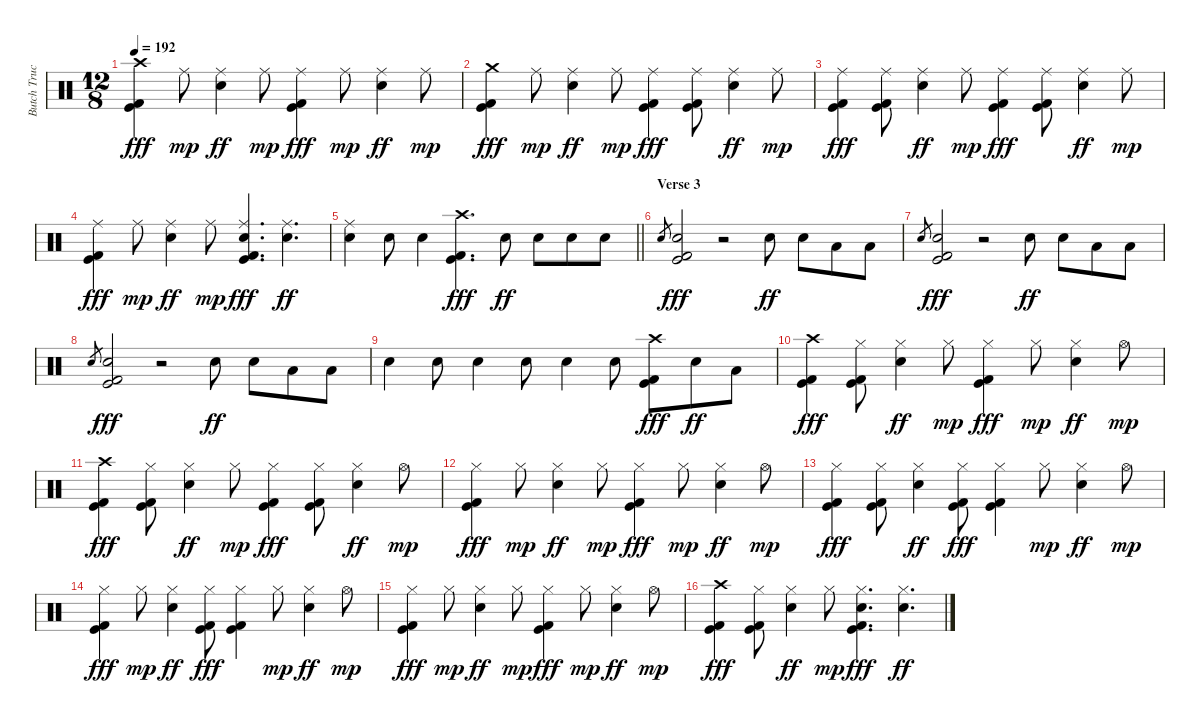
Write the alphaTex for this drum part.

\track ("Butch Trucks, Jaimoe - Drums" "Butch Truc") {instrument percussion}
\staff {score}
\articulation defaults
\ts (12 8)
\tempo 192
\clef neutral
\ks c
("Crash high (hit)" "Kick (hit)" "Kick (hit) 2").4{dy fff} "Ride (middle)".8{dy mp} ("Ride (middle)" "Snare (hit) 2").4{dy ff} "Ride (middle)".8{dy mp} ("Ride (middle)" "Kick (hit)" "Kick (hit) 2").4{dy fff} "Ride (middle)".8{dy mp} ("Ride (middle)" "Snare (hit) 2").4{dy ff} "Ride (middle)".8{dy mp} |
("Crash medium (hit)" "Kick (hit)" "Kick (hit) 2").4{dy fff} "Ride (middle)".8{dy mp} ("Ride (middle)" "Snare (hit) 2").4{dy ff} "Ride (middle)".8{dy mp} ("Ride (middle)" "Kick (hit)" "Kick (hit) 2").4{dy fff} ("Ride (middle)" "Kick (hit)" "Kick (hit) 2").8 ("Ride (middle)" "Snare (hit) 2").4{dy ff} "Ride (middle)".8{dy mp} |
("Ride (middle)" "Kick (hit)" "Kick (hit) 2").4{dy fff} ("Ride (middle)" "Kick (hit)" "Kick (hit) 2").8 ("Ride (middle)" "Snare (hit) 2").4{dy ff} "Ride (middle)".8{dy mp} ("Ride (middle)" "Kick (hit)" "Kick (hit) 2").4{dy fff} ("Ride (middle)" "Kick (hit)" "Kick (hit) 2").8 ("Ride (middle)" "Snare (hit) 2").4{dy ff} "Ride (middle)".8{dy mp} |
("Ride (middle)" "Kick (hit)" "Kick (hit) 2").4{dy fff} "Ride (middle)".8{dy mp} ("Ride (middle)" "Snare (hit) 2").4{dy ff} "Ride (middle)".8{dy mp} ("Ride (middle)" "Snare (hit) 2" "Kick (hit)" "Kick (hit) 2").4{d dy fff} ("Ride (middle)" "Snare (hit) 2").4{d dy ff} |
\barLineRight lightlight
("Ride (middle)" "Snare (hit) 2").4 "Snare (hit) 2".8 "Snare (hit) 2".4 ("Crash high (hit)" "Kick (hit)" "Kick (hit) 2").4{d dy fff} "Snare (hit) 2".8{dy ff} "Snare (hit) 2".8 "Snare (hit) 2".8 "Snare (hit) 2".8 |
\section ("" "Verse 3 ")
"Snare (hit) 2".8{gr} ("Snare (hit) 2" "Kick (hit)" "Kick (hit) 2").2{dy fff} r.2 "Snare (hit) 2".8{dy ff} "Electric Snare (hit)".8 "Low Tom (hit)".8 "Low Floor Tom (hit)".8 |
"Snare (hit) 2".8{gr} ("Snare (hit) 2" "Kick (hit)" "Kick (hit) 2").2{dy fff} r.2 "Snare (hit) 2".8{dy ff} "Electric Snare (hit)".8 "Low Tom (hit)".8 "Low Floor Tom (hit)".8 |
"Snare (hit) 2".8{gr} ("Snare (hit) 2" "Kick (hit)" "Kick (hit) 2").2{dy fff} r.2 "Snare (hit) 2".8{dy ff} "Electric Snare (hit)".8 "Low Tom (hit)".8 "Low Floor Tom (hit)".8 |
"Snare (hit) 2".4 "Snare (hit) 2".8 "Snare (hit) 2".4 "Snare (hit) 2".8 "Snare (hit) 2".4 "Snare (hit) 2".8 ("Crash high (hit)" "Kick (hit)" "Kick (hit) 2").8{dy fff} "Snare (hit) 2".8{dy ff} "Low Tom (hit)".8 |
("Crash high (hit)" "Kick (hit)" "Kick (hit) 2").4{dy fff} ("Hi-Hat (closed)" "Kick (hit)" "Kick (hit) 2").8 ("Hi-Hat (closed)" "Snare (hit) 2").4{dy ff} "Hi-Hat (closed)".8{dy mp} ("Hi-Hat (closed)" "Kick (hit)" "Kick (hit) 2").4{dy fff} "Hi-Hat (closed)".8{dy mp} ("Hi-Hat (closed)" "Snare (hit) 2").4{dy ff} "Hi-Hat (open)".8{dy mp} |
("Crash high (hit)" "Kick (hit)" "Kick (hit) 2").4{dy fff} ("Hi-Hat (closed)" "Kick (hit)" "Kick (hit) 2").8 ("Hi-Hat (closed)" "Snare (hit) 2").4{dy ff} "Hi-Hat (closed)".8{dy mp} ("Hi-Hat (closed)" "Kick (hit)" "Kick (hit) 2").4{dy fff} ("Hi-Hat (closed)" "Kick (hit)" "Kick (hit) 2").8 ("Hi-Hat (closed)" "Snare (hit) 2").4{dy ff} "Hi-Hat (open)".8{dy mp} |
("Hi-Hat (closed)" "Kick (hit)" "Kick (hit) 2").4{dy fff} "Hi-Hat (closed)".8{dy mp} ("Hi-Hat (closed)" "Snare (hit) 2").4{dy ff} "Hi-Hat (closed)".8{dy mp} ("Hi-Hat (closed)" "Kick (hit)" "Kick (hit) 2").4{dy fff} "Hi-Hat (closed)".8{dy mp} ("Hi-Hat (closed)" "Snare (hit) 2").4{dy ff} "Hi-Hat (open)".8{dy mp} |
("Hi-Hat (closed)" "Kick (hit)" "Kick (hit) 2").4{dy fff} ("Hi-Hat (closed)" "Kick (hit)" "Kick (hit) 2").8 ("Hi-Hat (closed)" "Snare (hit) 2").4{dy ff} ("Hi-Hat (closed)" "Kick (hit)" "Kick (hit) 2").8{dy fff} ("Hi-Hat (closed)" "Kick (hit)" "Kick (hit) 2").4 "Hi-Hat (closed)".8{dy mp} ("Hi-Hat (closed)" "Snare (hit) 2").4{dy ff} "Hi-Hat (open)".8{dy mp} |
("Hi-Hat (closed)" "Kick (hit)" "Kick (hit) 2").4{dy fff} "Hi-Hat (closed)".8{dy mp} ("Hi-Hat (closed)" "Snare (hit) 2").4{dy ff} ("Hi-Hat (closed)" "Kick (hit)" "Kick (hit) 2").8{dy fff} ("Hi-Hat (closed)" "Kick (hit)" "Kick (hit) 2").4 "Hi-Hat (closed)".8{dy mp} ("Hi-Hat (closed)" "Snare (hit) 2").4{dy ff} "Hi-Hat (open)".8{dy mp} |
("Hi-Hat (closed)" "Kick (hit)" "Kick (hit) 2").4{dy fff} "Hi-Hat (closed)".8{dy mp} ("Hi-Hat (closed)" "Snare (hit) 2").4{dy ff} "Hi-Hat (closed)".8{dy mp} ("Hi-Hat (closed)" "Kick (hit)" "Kick (hit) 2").4{dy fff} "Hi-Hat (closed)".8{dy mp} ("Hi-Hat (closed)" "Snare (hit) 2").4{dy ff} "Hi-Hat (open)".8{dy mp} |
("Crash high (hit)" "Kick (hit)" "Kick (hit) 2").4{dy fff} ("Hi-Hat (closed)" "Kick (hit)" "Kick (hit) 2").8 ("Hi-Hat (closed)" "Snare (hit) 2").4{dy ff} "Hi-Hat (closed)".8{dy mp} ("Hi-Hat (closed)" "Snare (hit) 2" "Kick (hit)" "Kick (hit) 2").4{d dy fff} ("Hi-Hat (closed)" "Snare (hit) 2").4{d dy ff}
